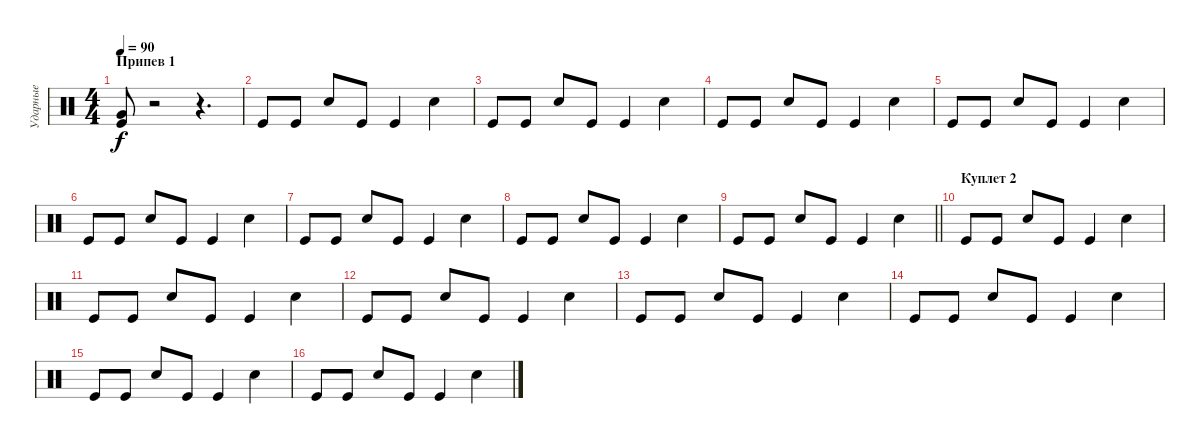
\track ("Ударные" "Ударные") {instrument percussion}
\staff
\articulation defaults
\ts (4 4)
\section ("" "Припев 1")
\tempo 90
\clef neutral
\ks c
("Kick (hit)" "Very Low Tom (hit)").8{dy f} r.2 r.4{d} |
"Kick (hit)".8 "Kick (hit)".8 "Snare (hit) 2".8 "Kick (hit)".8 "Kick (hit)".4 "Snare (hit) 2".4 |
"Kick (hit)".8 "Kick (hit)".8 "Snare (hit) 2".8 "Kick (hit)".8 "Kick (hit)".4 "Snare (hit) 2".4 |
"Kick (hit)".8 "Kick (hit)".8 "Snare (hit) 2".8 "Kick (hit)".8 "Kick (hit)".4 "Snare (hit) 2".4 |
"Kick (hit)".8 "Kick (hit)".8 "Snare (hit) 2".8 "Kick (hit)".8 "Kick (hit)".4 "Snare (hit) 2".4 |
"Kick (hit)".8 "Kick (hit)".8 "Snare (hit) 2".8 "Kick (hit)".8 "Kick (hit)".4 "Snare (hit) 2".4 |
"Kick (hit)".8 "Kick (hit)".8 "Snare (hit) 2".8 "Kick (hit)".8 "Kick (hit)".4 "Snare (hit) 2".4 |
"Kick (hit)".8 "Kick (hit)".8 "Snare (hit) 2".8 "Kick (hit)".8 "Kick (hit)".4 "Snare (hit) 2".4 |
\barLineRight lightlight "Kick (hit)".8 "Kick (hit)".8 "Snare (hit) 2".8 "Kick (hit)".8 "Kick (hit)".4 "Snare (hit) 2".4
|
\section ("" "Куплет 2")
"Kick (hit)".8 "Kick (hit)".8 "Snare (hit) 2".8 "Kick (hit)".8 "Kick (hit)".4 "Snare (hit) 2".4 |
"Kick (hit)".8 "Kick (hit)".8 "Snare (hit) 2".8 "Kick (hit)".8 "Kick (hit)".4 "Snare (hit) 2".4 |
"Kick (hit)".8 "Kick (hit)".8 "Snare (hit) 2".8 "Kick (hit)".8 "Kick (hit)".4 "Snare (hit) 2".4 |
"Kick (hit)".8 "Kick (hit)".8 "Snare (hit) 2".8 "Kick (hit)".8 "Kick (hit)".4 "Snare (hit) 2".4 |
"Kick (hit)".8 "Kick (hit)".8 "Snare (hit) 2".8 "Kick (hit)".8 "Kick (hit)".4 "Snare (hit) 2".4 |
"Kick (hit)".8 "Kick (hit)".8 "Snare (hit) 2".8 "Kick (hit)".8 "Kick (hit)".4 "Snare (hit) 2".4 |
"Kick (hit)".8 "Kick (hit)".8 "Snare (hit) 2".8 "Kick (hit)".8 "Kick (hit)".4 "Snare (hit) 2".4
